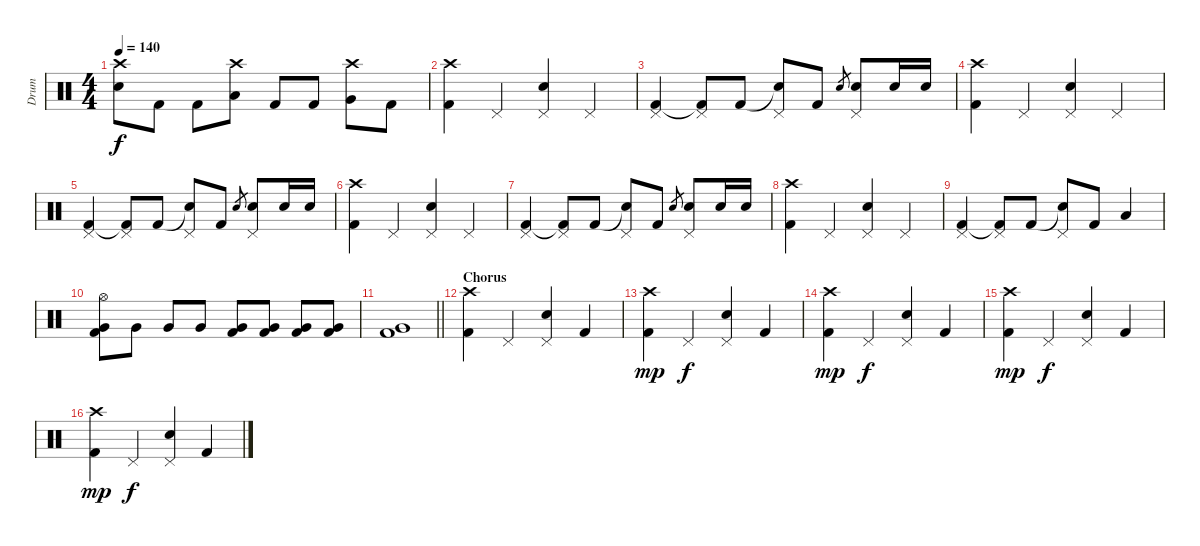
\track ("Drum" "Drum") {instrument percussion}
\staff {score}
\articulation defaults
\ts (4 4)
\tempo 140
\clef neutral
\ks c
("Electric Snare (hit)" "Crash high (hit)").8{dy f} "Kick (hit) 2".8 "Kick (hit) 2".8 ("Low Tom (hit)" "Crash high (hit)").8 "Kick (hit) 2".8 "Kick (hit) 2".8 ("Very Low Tom (hit)" "Crash high (hit)").8 "Kick (hit) 2".8 |
("Kick (hit) 2" "Crash high (hit)").4 "Pedal Hi-Hat (hit)".4 ("Electric Snare (hit)" "Pedal Hi-Hat (hit)").4 "Pedal Hi-Hat (hit)".4 |
("Kick (hit) 2" "Pedal Hi-Hat (hit)").4 ("Kick (hit) 2"{t} "Pedal Hi-Hat (hit)").8 "Kick (hit) 2".8 ("Snare (hit)"{t} "Pedal Hi-Hat (hit)").8 "Kick (hit) 2".8 "Electric Snare (hit)".8{gr} ("Electric Snare (hit)" "Pedal Hi-Hat (hit)").8 "Electric Snare (hit)".16 "Electric Snare (hit)".16 |
("Kick (hit) 2" "Crash high (hit)").4 "Pedal Hi-Hat (hit)".4 ("Electric Snare (hit)" "Pedal Hi-Hat (hit)").4 "Pedal Hi-Hat (hit)".4 |
("Kick (hit) 2" "Pedal Hi-Hat (hit)").4 ("Kick (hit) 2"{t} "Pedal Hi-Hat (hit)").8 "Kick (hit) 2".8 ("Snare (hit)"{t} "Pedal Hi-Hat (hit)").8 "Kick (hit) 2".8 "Electric Snare (hit)".8{gr} ("Electric Snare (hit)" "Pedal Hi-Hat (hit)").8 "Electric Snare (hit)".16 "Electric Snare (hit)".16 |
("Kick (hit) 2" "Crash high (hit)").4 "Pedal Hi-Hat (hit)".4 ("Electric Snare (hit)" "Pedal Hi-Hat (hit)").4 "Pedal Hi-Hat (hit)".4 |
("Kick (hit) 2" "Pedal Hi-Hat (hit)").4 ("Kick (hit) 2"{t} "Pedal Hi-Hat (hit)").8 "Kick (hit) 2".8 ("Snare (hit)"{t} "Pedal Hi-Hat (hit)").8 "Kick (hit) 2".8 "Electric Snare (hit)".8{gr} ("Electric Snare (hit)" "Pedal Hi-Hat (hit)").8 "Electric Snare (hit)".16 "Electric Snare (hit)".16 |
("Kick (hit) 2" "Crash high (hit)").4 "Pedal Hi-Hat (hit)".4 ("Electric Snare (hit)" "Pedal Hi-Hat (hit)").4 "Pedal Hi-Hat (hit)".4 |
("Kick (hit) 2" "Pedal Hi-Hat (hit)").4 ("Kick (hit) 2"{t} "Pedal Hi-Hat (hit)").8 "Kick (hit) 2".8 ("Snare (hit)"{t} "Pedal Hi-Hat (hit)").8 "Kick (hit) 2".8 "Low Tom (hit)".4 |
("Very Low Tom (hit)" "Kick (hit) 2" "Hi-Hat (open)").8 "Very Low Tom (hit)".8 "Very Low Tom (hit)".8 "Very Low Tom (hit)".8 ("Very Low Tom (hit)" "Kick (hit) 2").8 ("Very Low Tom (hit)" "Kick (hit) 2").8 ("Very Low Tom (hit)" "Kick (hit) 2").8 ("Very Low Tom (hit)" "Kick (hit) 2").8 |
\barLineRight lightlight
("Very Low Tom (hit)" "Kick (hit) 2").1 |
\section ("" "Chorus")
("Kick (hit) 2" "Crash high (hit)").4 "Pedal Hi-Hat (hit)".4 ("Electric Snare (hit)" "Pedal Hi-Hat (hit)").4 "Kick (hit) 2".4 |
("Kick (hit) 2" "Crash high (hit)").4{dy mp} "Pedal Hi-Hat (hit)".4{dy f} ("Electric Snare (hit)" "Pedal Hi-Hat (hit)").4 "Kick (hit) 2".4 |
("Kick (hit) 2" "Crash high (hit)").4{dy mp} "Pedal Hi-Hat (hit)".4{dy f} ("Electric Snare (hit)" "Pedal Hi-Hat (hit)").4 "Kick (hit) 2".4 |
("Kick (hit) 2" "Crash high (hit)").4{dy mp} "Pedal Hi-Hat (hit)".4{dy f} ("Electric Snare (hit)" "Pedal Hi-Hat (hit)").4 "Kick (hit) 2".4 |
("Kick (hit) 2" "Crash high (hit)").4{dy mp} "Pedal Hi-Hat (hit)".4{dy f} ("Electric Snare (hit)" "Pedal Hi-Hat (hit)").4 "Kick (hit) 2".4
